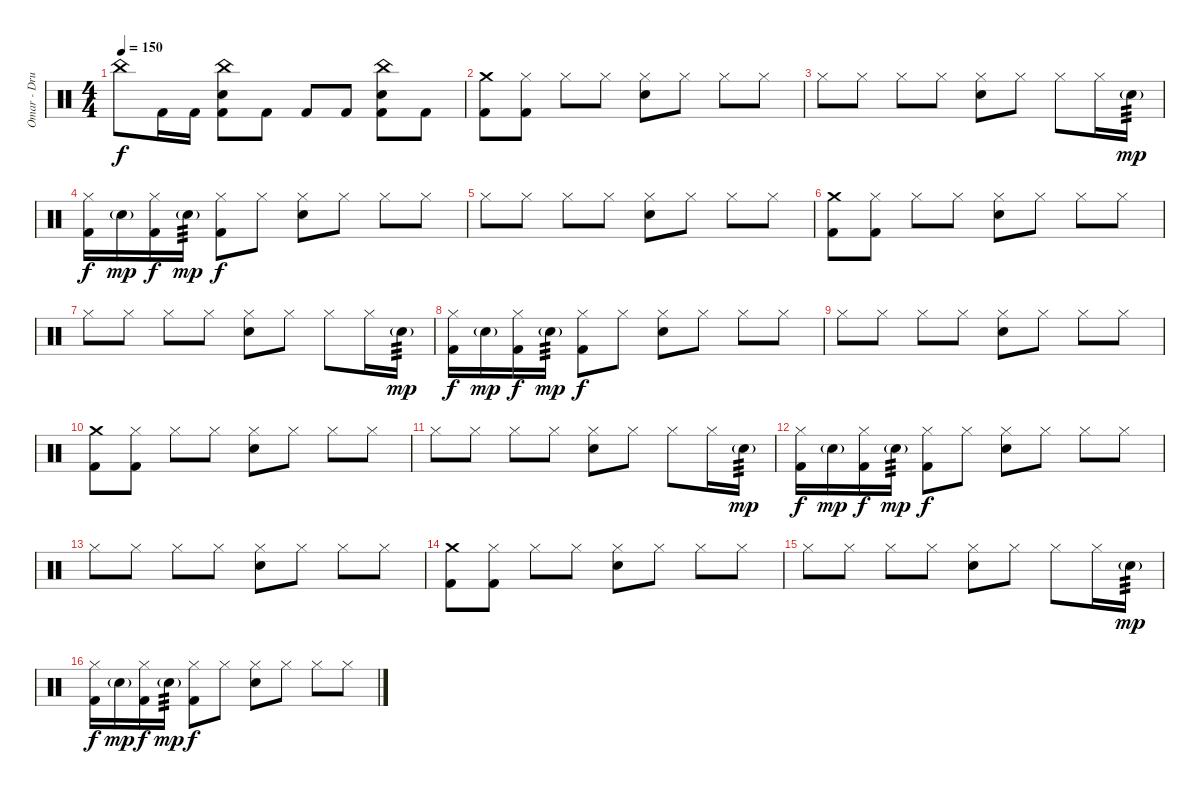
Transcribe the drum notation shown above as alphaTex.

\track ("Omar - Drums" "Omar - Dru") {instrument percussion}
\staff {score}
\articulation defaults
\ts (4 4)
\tempo 150
\clef neutral
\ks c "China (hit)".8{dy f} "Kick (hit) 2".16 "Kick (hit) 2".16
("China (hit)" "Electric Snare (hit)" "Kick (hit) 2").8 "Kick (hit) 2".8 "Kick (hit) 2".8 "Kick (hit) 2".8 ("China (hit)" "Electric Snare (hit)" "Kick (hit) 2").8 "Kick (hit) 2".8 |
("Crash medium (hit)" "Kick (hit) 2").8 ("Hi-Hat (closed)" "Kick (hit) 2").8 "Hi-Hat (closed)".8 "Hi-Hat (closed)".8 ("Hi-Hat (closed)" "Electric Snare (hit)").8 "Hi-Hat (closed)".8 "Hi-Hat (closed)".8 "Hi-Hat (closed)".8 |
"Hi-Hat (closed)".8 "Hi-Hat (closed)".8 "Hi-Hat (closed)".8 "Hi-Hat (closed)".8 ("Hi-Hat (closed)" "Electric Snare (hit)").8 "Hi-Hat (closed)".8 "Hi-Hat (closed)".8 "Hi-Hat (closed)".16 "Electric Snare (hit)"{g}.16{tp 3 dy mp} |
("Hi-Hat (closed)" "Kick (hit) 2").16{dy f} "Electric Snare (hit)"{g}.16{dy mp} ("Hi-Hat (closed)" "Kick (hit) 2").16{dy f} "Electric Snare (hit)"{g}.16{tp 3 dy mp} ("Hi-Hat (closed)" "Kick (hit) 2").8{dy f} "Hi-Hat (closed)".8 ("Hi-Hat (closed)" "Electric Snare (hit)").8 "Hi-Hat (closed)".8 "Hi-Hat (closed)".8 "Hi-Hat (closed)".8 |
"Hi-Hat (closed)".8 "Hi-Hat (closed)".8 "Hi-Hat (closed)".8 "Hi-Hat (closed)".8 ("Hi-Hat (closed)" "Electric Snare (hit)").8 "Hi-Hat (closed)".8 "Hi-Hat (closed)".8 "Hi-Hat (closed)".8 |
("Crash medium (hit)" "Kick (hit) 2").8 ("Hi-Hat (closed)" "Kick (hit) 2").8 "Hi-Hat (closed)".8 "Hi-Hat (closed)".8 ("Hi-Hat (closed)" "Electric Snare (hit)").8 "Hi-Hat (closed)".8 "Hi-Hat (closed)".8 "Hi-Hat (closed)".8 |
"Hi-Hat (closed)".8 "Hi-Hat (closed)".8 "Hi-Hat (closed)".8 "Hi-Hat (closed)".8 ("Hi-Hat (closed)" "Electric Snare (hit)").8 "Hi-Hat (closed)".8 "Hi-Hat (closed)".8 "Hi-Hat (closed)".16 "Electric Snare (hit)"{g}.16{tp 3 dy mp} |
("Hi-Hat (closed)" "Kick (hit) 2").16{dy f} "Electric Snare (hit)"{g}.16{dy mp} ("Hi-Hat (closed)" "Kick (hit) 2").16{dy f} "Electric Snare (hit)"{g}.16{tp 3 dy mp} ("Hi-Hat (closed)" "Kick (hit) 2").8{dy f} "Hi-Hat (closed)".8 ("Hi-Hat (closed)" "Electric Snare (hit)").8 "Hi-Hat (closed)".8 "Hi-Hat (closed)".8 "Hi-Hat (closed)".8 |
"Hi-Hat (closed)".8 "Hi-Hat (closed)".8 "Hi-Hat (closed)".8 "Hi-Hat (closed)".8 ("Hi-Hat (closed)" "Electric Snare (hit)").8 "Hi-Hat (closed)".8 "Hi-Hat (closed)".8 "Hi-Hat (closed)".8 |
("Crash medium (hit)" "Kick (hit) 2").8 ("Hi-Hat (closed)" "Kick (hit) 2").8 "Hi-Hat (closed)".8 "Hi-Hat (closed)".8 ("Hi-Hat (closed)" "Electric Snare (hit)").8 "Hi-Hat (closed)".8 "Hi-Hat (closed)".8 "Hi-Hat (closed)".8 |
"Hi-Hat (closed)".8 "Hi-Hat (closed)".8 "Hi-Hat (closed)".8 "Hi-Hat (closed)".8 ("Hi-Hat (closed)" "Electric Snare (hit)").8 "Hi-Hat (closed)".8 "Hi-Hat (closed)".8 "Hi-Hat (closed)".16 "Electric Snare (hit)"{g}.16{tp 3 dy mp} |
("Hi-Hat (closed)" "Kick (hit) 2").16{dy f} "Electric Snare (hit)"{g}.16{dy mp} ("Hi-Hat (closed)" "Kick (hit) 2").16{dy f} "Electric Snare (hit)"{g}.16{tp 3 dy mp} ("Hi-Hat (closed)" "Kick (hit) 2").8{dy f} "Hi-Hat (closed)".8 ("Hi-Hat (closed)" "Electric Snare (hit)").8 "Hi-Hat (closed)".8 "Hi-Hat (closed)".8 "Hi-Hat (closed)".8 |
"Hi-Hat (closed)".8 "Hi-Hat (closed)".8 "Hi-Hat (closed)".8 "Hi-Hat (closed)".8 ("Hi-Hat (closed)" "Electric Snare (hit)").8 "Hi-Hat (closed)".8 "Hi-Hat (closed)".8 "Hi-Hat (closed)".8 |
("Crash medium (hit)" "Kick (hit) 2").8 ("Hi-Hat (closed)" "Kick (hit) 2").8 "Hi-Hat (closed)".8 "Hi-Hat (closed)".8 ("Hi-Hat (closed)" "Electric Snare (hit)").8 "Hi-Hat (closed)".8 "Hi-Hat (closed)".8 "Hi-Hat (closed)".8 |
"Hi-Hat (closed)".8 "Hi-Hat (closed)".8 "Hi-Hat (closed)".8 "Hi-Hat (closed)".8 ("Hi-Hat (closed)" "Electric Snare (hit)").8 "Hi-Hat (closed)".8 "Hi-Hat (closed)".8 "Hi-Hat (closed)".16 "Electric Snare (hit)"{g}.16{tp 3 dy mp} |
("Hi-Hat (closed)" "Kick (hit) 2").16{dy f} "Electric Snare (hit)"{g}.16{dy mp} ("Hi-Hat (closed)" "Kick (hit) 2").16{dy f} "Electric Snare (hit)"{g}.16{tp 3 dy mp} ("Hi-Hat (closed)" "Kick (hit) 2").8{dy f} "Hi-Hat (closed)".8 ("Hi-Hat (closed)" "Electric Snare (hit)").8 "Hi-Hat (closed)".8 "Hi-Hat (closed)".8 "Hi-Hat (closed)".8
